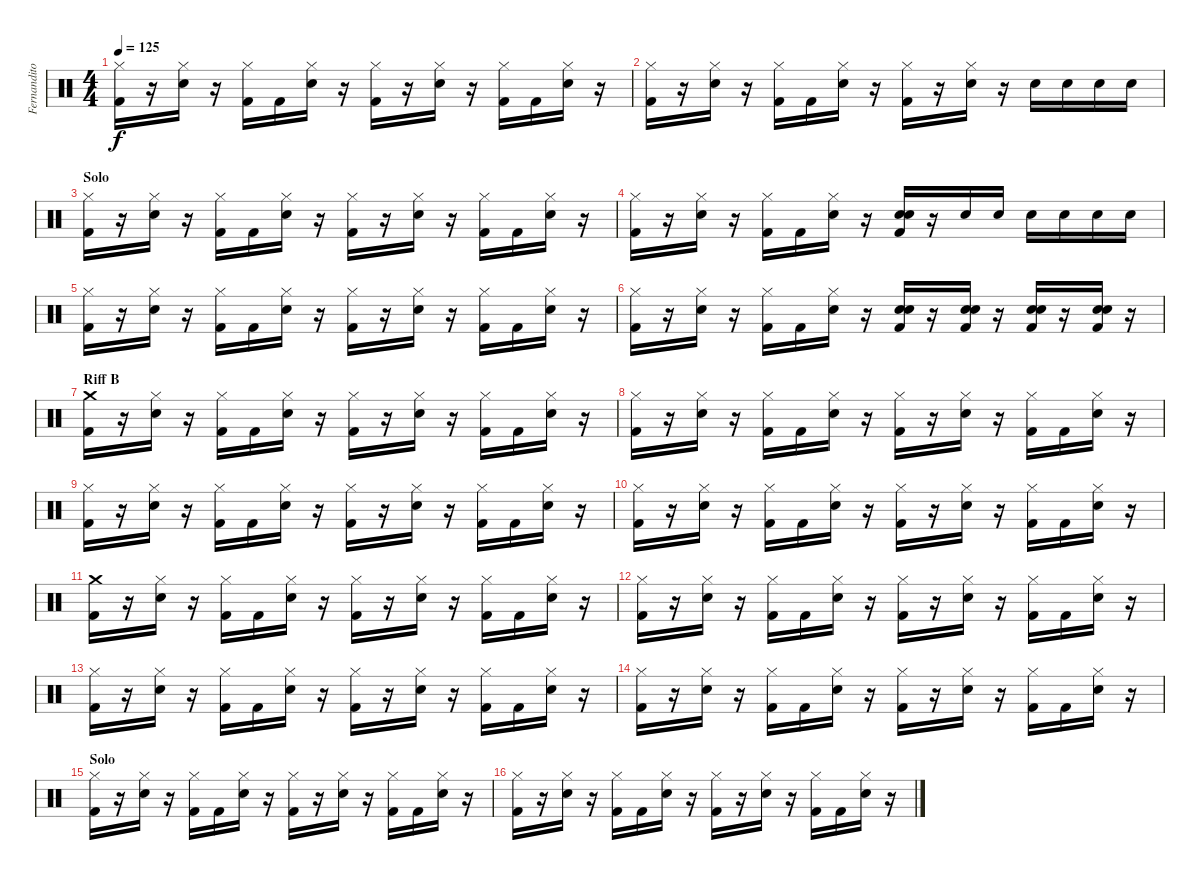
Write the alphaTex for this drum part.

\track ("Fernandito" "Fernandito") {instrument percussion}
\staff {score}
\articulation defaults
\ts (4 4)
\tempo 125
\clef neutral
\ks c
("Hi-Hat (closed)" "Kick (hit) 2").16{dy f} r.16 ("Hi-Hat (closed)" "Snare (hit) 2").16 r.16 ("Hi-Hat (closed)" "Kick (hit) 2").16 "Kick (hit) 2".16 ("Hi-Hat (closed)" "Snare (hit) 2").16 r.16 ("Hi-Hat (closed)" "Kick (hit) 2").16 r.16 ("Hi-Hat (closed)" "Snare (hit) 2").16 r.16 ("Hi-Hat (closed)" "Kick (hit) 2").16 "Kick (hit) 2".16 ("Hi-Hat (closed)" "Snare (hit) 2").16 r.16 |
("Hi-Hat (closed)" "Kick (hit) 2").16 r.16 ("Hi-Hat (closed)" "Snare (hit) 2").16 r.16 ("Hi-Hat (closed)" "Kick (hit) 2").16 "Kick (hit) 2".16 ("Hi-Hat (closed)" "Snare (hit) 2").16 r.16 ("Hi-Hat (closed)" "Kick (hit) 2").16 r.16 ("Hi-Hat (closed)" "Snare (hit) 2").16 r.16 "Snare (hit) 2".16 "Snare (hit) 2".16 "Snare (hit) 2".16 "Snare (hit) 2".16 |
\section ("" "Solo")
("Hi-Hat (closed)" "Kick (hit) 2").16 r.16 ("Hi-Hat (closed)" "Snare (hit) 2").16 r.16 ("Hi-Hat (closed)" "Kick (hit) 2").16 "Kick (hit) 2".16 ("Hi-Hat (closed)" "Snare (hit) 2").16 r.16 ("Hi-Hat (closed)" "Kick (hit) 2").16 r.16 ("Hi-Hat (closed)" "Snare (hit) 2").16 r.16 ("Hi-Hat (closed)" "Kick (hit) 2").16 "Kick (hit) 2".16 ("Hi-Hat (closed)" "Snare (hit) 2").16 r.16 |
("Hi-Hat (closed)" "Kick (hit) 2").16 r.16 ("Hi-Hat (closed)" "Snare (hit) 2").16 r.16 ("Hi-Hat (closed)" "Kick (hit) 2").16 "Kick (hit) 2".16 ("Hi-Hat (closed)" "Snare (hit) 2").16 r.16 ("Snare (hit) 2" "Snare (hit) 2" "Kick (hit) 2").16 r.16 "Snare (hit) 2".16 "Snare (hit) 2".16 "Snare (hit) 2".16 "Snare (hit) 2".16 "Snare (hit) 2".16 "Snare (hit) 2".16 |
("Hi-Hat (closed)" "Kick (hit) 2").16 r.16 ("Hi-Hat (closed)" "Snare (hit) 2").16 r.16 ("Hi-Hat (closed)" "Kick (hit) 2").16 "Kick (hit) 2".16 ("Hi-Hat (closed)" "Snare (hit) 2").16 r.16 ("Hi-Hat (closed)" "Kick (hit) 2").16 r.16 ("Hi-Hat (closed)" "Snare (hit) 2").16 r.16 ("Hi-Hat (closed)" "Kick (hit) 2").16 "Kick (hit) 2".16 ("Hi-Hat (closed)" "Snare (hit) 2").16 r.16 |
("Hi-Hat (closed)" "Kick (hit) 2").16 r.16 ("Hi-Hat (closed)" "Snare (hit) 2").16 r.16 ("Hi-Hat (closed)" "Kick (hit) 2").16 "Kick (hit) 2".16 ("Hi-Hat (closed)" "Snare (hit) 2").16 r.16 ("Snare (hit) 2" "Snare (hit) 2" "Kick (hit) 2").16 r.16 ("Snare (hit) 2" "Snare (hit) 2" "Kick (hit) 2").16 r.16 ("Snare (hit) 2" "Snare (hit) 2" "Kick (hit) 2").16 r.16 ("Snare (hit) 2" "Snare (hit) 2" "Kick (hit) 2").16 r.16 |
\section ("" "Riff B")
("Crash medium (hit)" "Kick (hit) 2").16 r.16 ("Hi-Hat (closed)" "Snare (hit) 2").16 r.16 ("Hi-Hat (closed)" "Kick (hit) 2").16 "Kick (hit) 2".16 ("Hi-Hat (closed)" "Snare (hit) 2").16 r.16 ("Hi-Hat (closed)" "Kick (hit) 2").16 r.16 ("Hi-Hat (closed)" "Snare (hit) 2").16 r.16 ("Hi-Hat (closed)" "Kick (hit) 2").16 "Kick (hit) 2".16 ("Hi-Hat (closed)" "Snare (hit) 2").16 r.16 |
("Hi-Hat (closed)" "Kick (hit) 2").16 r.16 ("Hi-Hat (closed)" "Snare (hit) 2").16 r.16 ("Hi-Hat (closed)" "Kick (hit) 2").16 "Kick (hit) 2".16 ("Hi-Hat (closed)" "Snare (hit) 2").16 r.16 ("Hi-Hat (closed)" "Kick (hit) 2").16 r.16 ("Hi-Hat (closed)" "Snare (hit) 2").16 r.16 ("Hi-Hat (closed)" "Kick (hit) 2").16 "Kick (hit) 2".16 ("Hi-Hat (closed)" "Snare (hit) 2").16 r.16 |
("Hi-Hat (closed)" "Kick (hit) 2").16 r.16 ("Hi-Hat (closed)" "Snare (hit) 2").16 r.16 ("Hi-Hat (closed)" "Kick (hit) 2").16 "Kick (hit) 2".16 ("Hi-Hat (closed)" "Snare (hit) 2").16 r.16 ("Hi-Hat (closed)" "Kick (hit) 2").16 r.16 ("Hi-Hat (closed)" "Snare (hit) 2").16 r.16 ("Hi-Hat (closed)" "Kick (hit) 2").16 "Kick (hit) 2".16 ("Hi-Hat (closed)" "Snare (hit) 2").16 r.16 |
("Hi-Hat (closed)" "Kick (hit) 2").16 r.16 ("Hi-Hat (closed)" "Snare (hit) 2").16 r.16 ("Hi-Hat (closed)" "Kick (hit) 2").16 "Kick (hit) 2".16 ("Hi-Hat (closed)" "Snare (hit) 2").16 r.16 ("Hi-Hat (closed)" "Kick (hit) 2").16 r.16 ("Hi-Hat (closed)" "Snare (hit) 2").16 r.16 ("Hi-Hat (closed)" "Kick (hit) 2").16 "Kick (hit) 2".16 ("Hi-Hat (closed)" "Snare (hit) 2").16 r.16 |
("Crash medium (hit)" "Kick (hit) 2").16 r.16 ("Hi-Hat (closed)" "Snare (hit) 2").16 r.16 ("Hi-Hat (closed)" "Kick (hit) 2").16 "Kick (hit) 2".16 ("Hi-Hat (closed)" "Snare (hit) 2").16 r.16 ("Hi-Hat (closed)" "Kick (hit) 2").16 r.16 ("Hi-Hat (closed)" "Snare (hit) 2").16 r.16 ("Hi-Hat (closed)" "Kick (hit) 2").16 "Kick (hit) 2".16 ("Hi-Hat (closed)" "Snare (hit) 2").16 r.16 |
("Hi-Hat (closed)" "Kick (hit) 2").16 r.16 ("Hi-Hat (closed)" "Snare (hit) 2").16 r.16 ("Hi-Hat (closed)" "Kick (hit) 2").16 "Kick (hit) 2".16 ("Hi-Hat (closed)" "Snare (hit) 2").16 r.16 ("Hi-Hat (closed)" "Kick (hit) 2").16 r.16 ("Hi-Hat (closed)" "Snare (hit) 2").16 r.16 ("Hi-Hat (closed)" "Kick (hit) 2").16 "Kick (hit) 2".16 ("Hi-Hat (closed)" "Snare (hit) 2").16 r.16 |
("Hi-Hat (closed)" "Kick (hit) 2").16 r.16 ("Hi-Hat (closed)" "Snare (hit) 2").16 r.16 ("Hi-Hat (closed)" "Kick (hit) 2").16 "Kick (hit) 2".16 ("Hi-Hat (closed)" "Snare (hit) 2").16 r.16 ("Hi-Hat (closed)" "Kick (hit) 2").16 r.16 ("Hi-Hat (closed)" "Snare (hit) 2").16 r.16 ("Hi-Hat (closed)" "Kick (hit) 2").16 "Kick (hit) 2".16 ("Hi-Hat (closed)" "Snare (hit) 2").16 r.16 |
("Hi-Hat (closed)" "Kick (hit) 2").16 r.16 ("Hi-Hat (closed)" "Snare (hit) 2").16 r.16 ("Hi-Hat (closed)" "Kick (hit) 2").16 "Kick (hit) 2".16 ("Hi-Hat (closed)" "Snare (hit) 2").16 r.16 ("Hi-Hat (closed)" "Kick (hit) 2").16 r.16 ("Hi-Hat (closed)" "Snare (hit) 2").16 r.16 ("Hi-Hat (closed)" "Kick (hit) 2").16 "Kick (hit) 2".16 ("Hi-Hat (closed)" "Snare (hit) 2").16 r.16 |
\section ("" "Solo")
("Hi-Hat (closed)" "Kick (hit) 2").16 r.16 ("Hi-Hat (closed)" "Snare (hit) 2").16 r.16 ("Hi-Hat (closed)" "Kick (hit) 2").16 "Kick (hit) 2".16 ("Hi-Hat (closed)" "Snare (hit) 2").16 r.16 ("Hi-Hat (closed)" "Kick (hit) 2").16 r.16 ("Hi-Hat (closed)" "Snare (hit) 2").16 r.16 ("Hi-Hat (closed)" "Kick (hit) 2").16 "Kick (hit) 2".16 ("Hi-Hat (closed)" "Snare (hit) 2").16 r.16 |
("Hi-Hat (closed)" "Kick (hit) 2").16 r.16 ("Hi-Hat (closed)" "Snare (hit) 2").16 r.16 ("Hi-Hat (closed)" "Kick (hit) 2").16 "Kick (hit) 2".16 ("Hi-Hat (closed)" "Snare (hit) 2").16 r.16 ("Hi-Hat (closed)" "Kick (hit) 2").16 r.16 ("Hi-Hat (closed)" "Snare (hit) 2").16 r.16 ("Hi-Hat (closed)" "Kick (hit) 2").16 "Kick (hit) 2".16 ("Hi-Hat (closed)" "Snare (hit) 2").16 r.16
